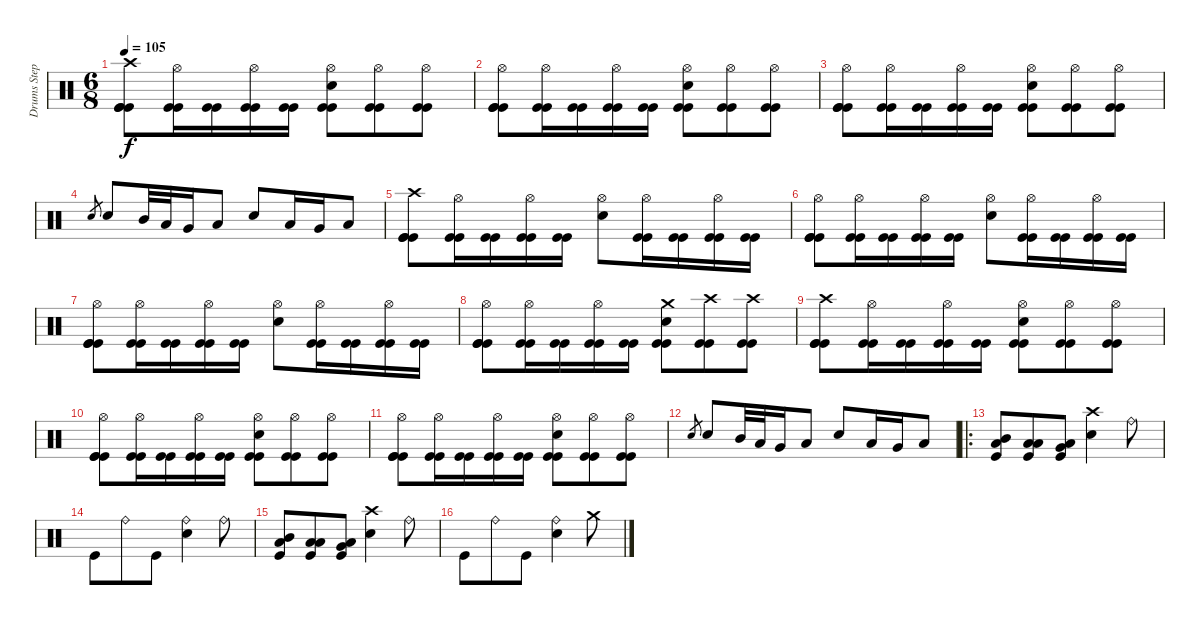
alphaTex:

\track ("Drums Stephen van Haestregt" "Drums Step") {instrument percussion}
\staff {score}
\articulation defaults
\ts (6 8)
\tempo 105
\clef neutral
\ks c
("Kick (hit)" "Kick (hit)" "Kick (hit)" "Crash high (hit)").8{dy f} ("Kick (hit)" "Kick (hit)" "Hi-Hat (open)").16 ("Kick (hit)" "Kick (hit)").16 ("Kick (hit)" "Kick (hit)" "Hi-Hat (open)").16 ("Kick (hit)" "Kick (hit)").16 ("Snare (hit) 2" "Kick (hit)" "Kick (hit)" "Hi-Hat (open)").8 ("Kick (hit)" "Kick (hit)" "Hi-Hat (open)").8 ("Kick (hit)" "Kick (hit)" "Hi-Hat (open)").8 |
("Kick (hit)" "Kick (hit)" "Kick (hit)" "Hi-Hat (open)").8 ("Kick (hit)" "Kick (hit)" "Hi-Hat (open)").16 ("Kick (hit)" "Kick (hit)").16 ("Kick (hit)" "Kick (hit)" "Hi-Hat (open)").16 ("Kick (hit)" "Kick (hit)").16 ("Snare (hit) 2" "Kick (hit)" "Kick (hit)" "Hi-Hat (open)").8 ("Kick (hit)" "Kick (hit)" "Hi-Hat (open)").8 ("Kick (hit)" "Kick (hit)" "Hi-Hat (open)").8 |
("Kick (hit)" "Kick (hit)" "Kick (hit)" "Hi-Hat (open)").8 ("Kick (hit)" "Kick (hit)" "Hi-Hat (open)").16 ("Kick (hit)" "Kick (hit)").16 ("Kick (hit)" "Kick (hit)" "Hi-Hat (open)").16 ("Kick (hit)" "Kick (hit)").16 ("Snare (hit) 2" "Kick (hit)" "Kick (hit)" "Hi-Hat (open)").8 ("Kick (hit)" "Kick (hit)" "Hi-Hat (open)").8 ("Kick (hit)" "Kick (hit)" "Hi-Hat (open)").8 |
"Snare (hit) 2".8{gr} "Snare (hit) 2".8 "Mid Tom (hit)".32 "Low Tom (hit)".32 "Very Low Tom (hit)".16 "Low Floor Tom (hit)".8 "Snare (hit) 2".8 "Low Tom (hit)".16 "Very Low Tom (hit)".16 "Low Floor Tom (hit)".8 |
("Kick (hit)" "Kick (hit)" "Kick (hit)" "Crash high (hit)").8 ("Kick (hit)" "Kick (hit)" "Hi-Hat (open)").16 ("Kick (hit)" "Kick (hit)").16 ("Kick (hit)" "Kick (hit)" "Hi-Hat (open)").16 ("Kick (hit)" "Kick (hit)").16 ("Snare (hit) 2" "Hi-Hat (open)").8 ("Kick (hit)" "Kick (hit)" "Hi-Hat (open)").16 ("Kick (hit)" "Kick (hit)").16 ("Kick (hit)" "Kick (hit)" "Hi-Hat (open)").16 ("Kick (hit)" "Kick (hit)").16 |
("Kick (hit)" "Kick (hit)" "Kick (hit)" "Hi-Hat (open)").8 ("Kick (hit)" "Kick (hit)" "Hi-Hat (open)").16 ("Kick (hit)" "Kick (hit)").16 ("Kick (hit)" "Kick (hit)" "Hi-Hat (open)").16 ("Kick (hit)" "Kick (hit)").16 ("Snare (hit) 2" "Hi-Hat (open)").8 ("Kick (hit)" "Kick (hit)" "Hi-Hat (open)").16 ("Kick (hit)" "Kick (hit)").16 ("Kick (hit)" "Kick (hit)" "Hi-Hat (open)").16 ("Kick (hit)" "Kick (hit)").16 |
("Kick (hit)" "Kick (hit)" "Kick (hit)" "Hi-Hat (open)").8 ("Kick (hit)" "Kick (hit)" "Hi-Hat (open)").16 ("Kick (hit)" "Kick (hit)").16 ("Kick (hit)" "Kick (hit)" "Hi-Hat (open)").16 ("Kick (hit)" "Kick (hit)").16 ("Snare (hit) 2" "Hi-Hat (open)").8 ("Kick (hit)" "Kick (hit)" "Hi-Hat (open)").16 ("Kick (hit)" "Kick (hit)").16 ("Kick (hit)" "Kick (hit)" "Hi-Hat (open)").16 ("Kick (hit)" "Kick (hit)").16 |
("Kick (hit)" "Kick (hit)" "Kick (hit)" "Hi-Hat (open)").8 ("Kick (hit)" "Kick (hit)" "Hi-Hat (open)").16 ("Kick (hit)" "Kick (hit)").16 ("Kick (hit)" "Kick (hit)" "Hi-Hat (open)").16 ("Kick (hit)" "Kick (hit)").16 ("Snare (hit) 2" "Kick (hit)" "Kick (hit)" "Crash medium (hit)").8 ("Kick (hit)" "Kick (hit)" "Crash high (hit)").8 ("Kick (hit)" "Kick (hit)" "Crash high (hit)").8 |
("Kick (hit)" "Kick (hit)" "Kick (hit)" "Crash high (hit)").8 ("Kick (hit)" "Kick (hit)" "Hi-Hat (open)").16 ("Kick (hit)" "Kick (hit)").16 ("Kick (hit)" "Kick (hit)" "Hi-Hat (open)").16 ("Kick (hit)" "Kick (hit)").16 ("Snare (hit) 2" "Kick (hit)" "Kick (hit)" "Hi-Hat (open)").8 ("Kick (hit)" "Kick (hit)" "Hi-Hat (open)").8 ("Kick (hit)" "Kick (hit)" "Hi-Hat (open)").8 |
("Kick (hit)" "Kick (hit)" "Kick (hit)" "Hi-Hat (open)").8 ("Kick (hit)" "Kick (hit)" "Hi-Hat (open)").16 ("Kick (hit)" "Kick (hit)").16 ("Kick (hit)" "Kick (hit)" "Hi-Hat (open)").16 ("Kick (hit)" "Kick (hit)").16 ("Snare (hit) 2" "Kick (hit)" "Kick (hit)" "Hi-Hat (open)").8 ("Kick (hit)" "Kick (hit)" "Hi-Hat (open)").8 ("Kick (hit)" "Kick (hit)" "Hi-Hat (open)").8 |
("Kick (hit)" "Kick (hit)" "Kick (hit)" "Hi-Hat (open)").8 ("Kick (hit)" "Kick (hit)" "Hi-Hat (open)").16 ("Kick (hit)" "Kick (hit)").16 ("Kick (hit)" "Kick (hit)" "Hi-Hat (open)").16 ("Kick (hit)" "Kick (hit)").16 ("Snare (hit) 2" "Kick (hit)" "Kick (hit)" "Hi-Hat (open)").8 ("Kick (hit)" "Kick (hit)" "Hi-Hat (open)").8 ("Kick (hit)" "Kick (hit)" "Hi-Hat (open)").8 |
"Snare (hit) 2".8{gr} "Snare (hit) 2".8 "Mid Tom (hit)".32 "Low Tom (hit)".32 "Very Low Tom (hit)".16 "Low Floor Tom (hit)".8 "Snare (hit) 2".8 "Low Tom (hit)".16 "Very Low Tom (hit)".16 "Low Floor Tom (hit)".8 |
\ro
("Low Floor Tom (hit)" "Kick (hit)" "Mid Tom (hit)").8 ("Low Floor Tom (hit)" "Kick (hit)" "Low Tom (hit)").8 ("Low Floor Tom (hit)" "Kick (hit)" "Very Low Tom (hit)").8 ("Crash high (hit)" "Snare (hit) 2").4 "Ride (bell)".8 |
"Kick (hit)".8 "Ride (bell)".8 "Kick (hit)".8 ("Snare (hit) 2" "Ride (bell)").4 "Ride (bell)".8 |
("Low Floor Tom (hit)" "Kick (hit)" "Mid Tom (hit)").8 ("Low Floor Tom (hit)" "Kick (hit)" "Low Tom (hit)").8 ("Low Floor Tom (hit)" "Kick (hit)" "Very Low Tom (hit)").8 ("Crash high (hit)" "Snare (hit) 2").4 "Ride (bell)".8 |
"Kick (hit)".8 "Ride (bell)".8 "Kick (hit)".8 ("Snare (hit) 2" "Ride (bell)").4 "Crash medium (hit)".8
